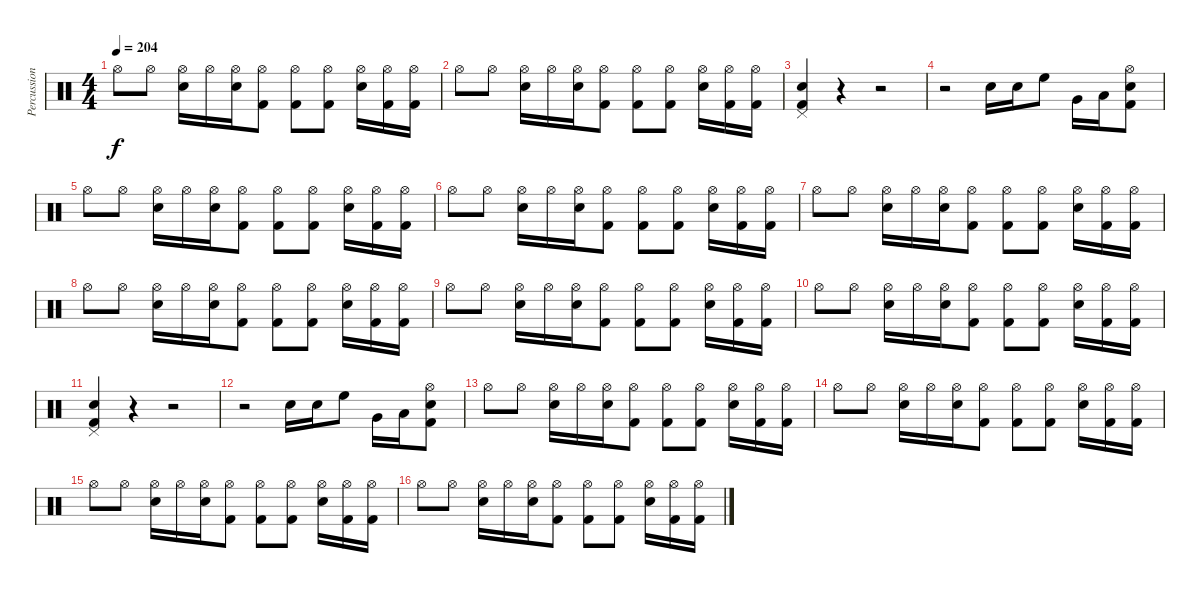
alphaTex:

\track ("Percussion" "Percussion") {instrument percussion}
\staff {score}
\articulation defaults
\ts (4 4)
\tempo 204
\clef neutral
\ks c "Hi-Hat (open)".8{dy f} "Hi-Hat (open)".8
("Hi-Hat (open)" "Snare (hit) 2").16 "Hi-Hat (open)".16 ("Hi-Hat (open)" "Snare (hit) 2").16 ("Hi-Hat (open)" "Kick (hit) 2").8 ("Hi-Hat (open)" "Kick (hit) 2").8 ("Hi-Hat (open)" "Kick (hit) 2").8 ("Hi-Hat (open)" "Snare (hit) 2").16 ("Hi-Hat (open)" "Kick (hit) 2").16 ("Hi-Hat (open)" "Kick (hit) 2").16 |
"Hi-Hat (open)".8 "Hi-Hat (open)".8 ("Hi-Hat (open)" "Snare (hit) 2").16 "Hi-Hat (open)".16 ("Hi-Hat (open)" "Snare (hit) 2").16 ("Hi-Hat (open)" "Kick (hit) 2").8 ("Hi-Hat (open)" "Kick (hit) 2").8 ("Hi-Hat (open)" "Kick (hit) 2").8 ("Hi-Hat (open)" "Snare (hit) 2").16 ("Hi-Hat (open)" "Kick (hit) 2").16 ("Hi-Hat (open)" "Kick (hit) 2").16 |
("Pedal Hi-Hat (hit)" "Snare (hit) 2" "Kick (hit) 2").4 r.4 r.2 |
r.2 "Snare (hit) 2".16 "Snare (hit) 2".16 "High Floor Tom (hit)".8 "Very Low Tom (hit)".16 "Low Tom (hit)".16 ("Hi-Hat (open)" "Snare (hit) 2" "Kick (hit) 2").8 |
"Hi-Hat (open)".8 "Hi-Hat (open)".8 ("Hi-Hat (open)" "Snare (hit) 2").16 "Hi-Hat (open)".16 ("Hi-Hat (open)" "Snare (hit) 2").16 ("Hi-Hat (open)" "Kick (hit) 2").8 ("Hi-Hat (open)" "Kick (hit) 2").8 ("Hi-Hat (open)" "Kick (hit) 2").8 ("Hi-Hat (open)" "Snare (hit) 2").16 ("Hi-Hat (open)" "Kick (hit) 2").16 ("Hi-Hat (open)" "Kick (hit) 2").16 |
"Hi-Hat (open)".8 "Hi-Hat (open)".8 ("Hi-Hat (open)" "Snare (hit) 2").16 "Hi-Hat (open)".16 ("Hi-Hat (open)" "Snare (hit) 2").16 ("Hi-Hat (open)" "Kick (hit) 2").8 ("Hi-Hat (open)" "Kick (hit) 2").8 ("Hi-Hat (open)" "Kick (hit) 2").8 ("Hi-Hat (open)" "Snare (hit) 2").16 ("Hi-Hat (open)" "Kick (hit) 2").16 ("Hi-Hat (open)" "Kick (hit) 2").16 |
"Hi-Hat (open)".8 "Hi-Hat (open)".8 ("Hi-Hat (open)" "Snare (hit) 2").16 "Hi-Hat (open)".16 ("Hi-Hat (open)" "Snare (hit) 2").16 ("Hi-Hat (open)" "Kick (hit) 2").8 ("Hi-Hat (open)" "Kick (hit) 2").8 ("Hi-Hat (open)" "Kick (hit) 2").8 ("Hi-Hat (open)" "Snare (hit) 2").16 ("Hi-Hat (open)" "Kick (hit) 2").16 ("Hi-Hat (open)" "Kick (hit) 2").16 |
"Hi-Hat (open)".8 "Hi-Hat (open)".8 ("Hi-Hat (open)" "Snare (hit) 2").16 "Hi-Hat (open)".16 ("Hi-Hat (open)" "Snare (hit) 2").16 ("Hi-Hat (open)" "Kick (hit) 2").8 ("Hi-Hat (open)" "Kick (hit) 2").8 ("Hi-Hat (open)" "Kick (hit) 2").8 ("Hi-Hat (open)" "Snare (hit) 2").16 ("Hi-Hat (open)" "Kick (hit) 2").16 ("Hi-Hat (open)" "Kick (hit) 2").16 |
"Hi-Hat (open)".8 "Hi-Hat (open)".8 ("Hi-Hat (open)" "Snare (hit) 2").16 "Hi-Hat (open)".16 ("Hi-Hat (open)" "Snare (hit) 2").16 ("Hi-Hat (open)" "Kick (hit) 2").8 ("Hi-Hat (open)" "Kick (hit) 2").8 ("Hi-Hat (open)" "Kick (hit) 2").8 ("Hi-Hat (open)" "Snare (hit) 2").16 ("Hi-Hat (open)" "Kick (hit) 2").16 ("Hi-Hat (open)" "Kick (hit) 2").16 |
"Hi-Hat (open)".8 "Hi-Hat (open)".8 ("Hi-Hat (open)" "Snare (hit) 2").16 "Hi-Hat (open)".16 ("Hi-Hat (open)" "Snare (hit) 2").16 ("Hi-Hat (open)" "Kick (hit) 2").8 ("Hi-Hat (open)" "Kick (hit) 2").8 ("Hi-Hat (open)" "Kick (hit) 2").8 ("Hi-Hat (open)" "Snare (hit) 2").16 ("Hi-Hat (open)" "Kick (hit) 2").16 ("Hi-Hat (open)" "Kick (hit) 2").16 |
("Pedal Hi-Hat (hit)" "Snare (hit) 2" "Kick (hit) 2").4 r.4 r.2 |
r.2 "Snare (hit) 2".16 "Snare (hit) 2".16 "High Floor Tom (hit)".8 "Very Low Tom (hit)".16 "Low Tom (hit)".16 ("Hi-Hat (open)" "Snare (hit) 2" "Kick (hit) 2").8 |
"Hi-Hat (open)".8 "Hi-Hat (open)".8 ("Hi-Hat (open)" "Snare (hit) 2").16 "Hi-Hat (open)".16 ("Hi-Hat (open)" "Snare (hit) 2").16 ("Hi-Hat (open)" "Kick (hit) 2").8 ("Hi-Hat (open)" "Kick (hit) 2").8 ("Hi-Hat (open)" "Kick (hit) 2").8 ("Hi-Hat (open)" "Snare (hit) 2").16 ("Hi-Hat (open)" "Kick (hit) 2").16 ("Hi-Hat (open)" "Kick (hit) 2").16 |
"Hi-Hat (open)".8 "Hi-Hat (open)".8 ("Hi-Hat (open)" "Snare (hit) 2").16 "Hi-Hat (open)".16 ("Hi-Hat (open)" "Snare (hit) 2").16 ("Hi-Hat (open)" "Kick (hit) 2").8 ("Hi-Hat (open)" "Kick (hit) 2").8 ("Hi-Hat (open)" "Kick (hit) 2").8 ("Hi-Hat (open)" "Snare (hit) 2").16 ("Hi-Hat (open)" "Kick (hit) 2").16 ("Hi-Hat (open)" "Kick (hit) 2").16 |
"Hi-Hat (open)".8 "Hi-Hat (open)".8 ("Hi-Hat (open)" "Snare (hit) 2").16 "Hi-Hat (open)".16 ("Hi-Hat (open)" "Snare (hit) 2").16 ("Hi-Hat (open)" "Kick (hit) 2").8 ("Hi-Hat (open)" "Kick (hit) 2").8 ("Hi-Hat (open)" "Kick (hit) 2").8 ("Hi-Hat (open)" "Snare (hit) 2").16 ("Hi-Hat (open)" "Kick (hit) 2").16 ("Hi-Hat (open)" "Kick (hit) 2").16 |
"Hi-Hat (open)".8 "Hi-Hat (open)".8 ("Hi-Hat (open)" "Snare (hit) 2").16 "Hi-Hat (open)".16 ("Hi-Hat (open)" "Snare (hit) 2").16 ("Hi-Hat (open)" "Kick (hit) 2").8 ("Hi-Hat (open)" "Kick (hit) 2").8 ("Hi-Hat (open)" "Kick (hit) 2").8 ("Hi-Hat (open)" "Snare (hit) 2").16 ("Hi-Hat (open)" "Kick (hit) 2").16 ("Hi-Hat (open)" "Kick (hit) 2").16
